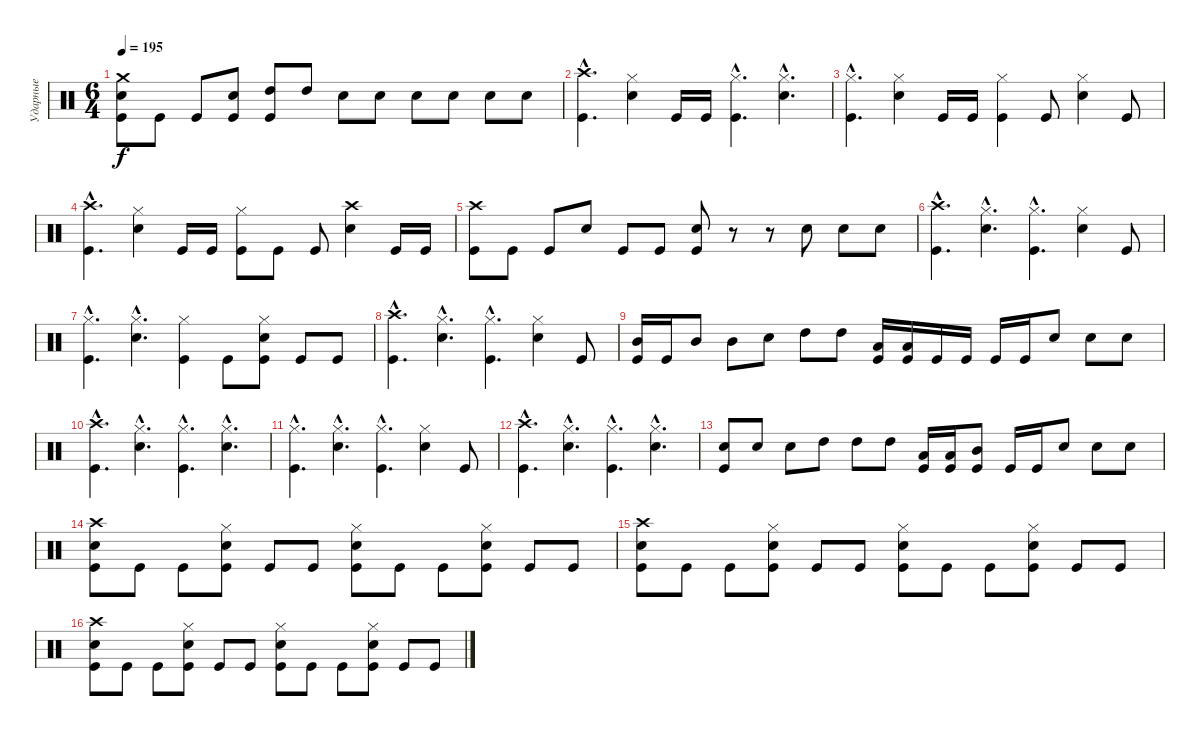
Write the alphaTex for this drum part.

\track ("Ударные" "Ударные") {instrument percussion}
\staff {score}
\articulation defaults
\ts (6 4)
\tempo 195
\clef neutral
\ks c
("Crash medium (hit)" "Electric Snare (hit)" "Kick (hit)").8{dy f} "Kick (hit)".8 "Kick (hit)".8 ("Electric Snare (hit)" "Kick (hit)").8 ("High Tom (hit)" "Kick (hit)").8 "High Tom (hit)".8 "Electric Snare (hit)".8 "Electric Snare (hit)".8 "Electric Snare (hit)".8 "Electric Snare (hit)".8 "Electric Snare (hit)".8 "Electric Snare (hit)".8 |
("Crash high (hit)"{hac} "Kick (hit)"{hac}).4{d} ("Hi-Hat (closed)" "Electric Snare (hit)").4 "Kick (hit)".16 "Kick (hit)".16 ("Hi-Hat (closed)"{hac} "Kick (hit)"{hac}).4{d} ("Hi-Hat (closed)"{hac} "Electric Snare (hit)"{hac}).4{d} |
("Hi-Hat (closed)"{hac} "Kick (hit)"{hac}).4{d} ("Hi-Hat (closed)" "Electric Snare (hit)").4 "Kick (hit)".16 "Kick (hit)".16 ("Hi-Hat (closed)" "Kick (hit)").4 "Kick (hit)".8 ("Hi-Hat (closed)" "Electric Snare (hit)").4 "Kick (hit)".8 |
("Crash high (hit)"{hac} "Kick (hit)"{hac}).4{d} ("Hi-Hat (closed)" "Electric Snare (hit)").4 "Kick (hit)".16 "Kick (hit)".16 ("Hi-Hat (closed)" "Kick (hit)").8 "Kick (hit)".8 "Kick (hit)".8 ("Crash high (hit)" "Electric Snare (hit)").4 "Kick (hit)".16 "Kick (hit)".16 |
("Crash high (hit)" "Kick (hit)").8 "Kick (hit)".8 "Kick (hit)".8 "Electric Snare (hit)".8 "Kick (hit)".8 "Kick (hit)".8 ("Electric Snare (hit)" "Kick (hit)").8 r.8 r.8 "Electric Snare (hit)".8 "Electric Snare (hit)".8 "Electric Snare (hit)".8 |
("Crash high (hit)"{hac} "Kick (hit)"{hac}).4{d} ("Hi-Hat (closed)"{hac} "Electric Snare (hit)"{hac}).4{d} ("Hi-Hat (closed)"{hac} "Kick (hit)"{hac}).4{d} ("Hi-Hat (closed)" "Electric Snare (hit)").4 "Kick (hit)".8 |
("Hi-Hat (closed)"{hac} "Kick (hit)"{hac}).4{d} ("Hi-Hat (closed)"{hac} "Electric Snare (hit)"{hac}).4{d} ("Hi-Hat (closed)" "Kick (hit)").4 "Kick (hit)".8 ("Hi-Hat (closed)" "Electric Snare (hit)" "Kick (hit)").8 "Kick (hit)".8 "Kick (hit)".8 |
("Crash high (hit)"{hac} "Kick (hit)"{hac}).4{d} ("Hi-Hat (closed)"{hac} "Electric Snare (hit)"{hac}).4{d} ("Hi-Hat (closed)"{hac} "Kick (hit)"{hac}).4{d} ("Hi-Hat (closed)" "Electric Snare (hit)").4 "Kick (hit)".8 |
("Mid Tom (hit)" "Kick (hit)").16 "Kick (hit)".16 "Mid Tom (hit)".8 "Mid Tom (hit)".8 "Electric Snare (hit)".8 "High Tom (hit)".8 "High Tom (hit)".8 ("Low Tom (hit)" "Kick (hit)").16 ("Low Tom (hit)" "Kick (hit)").16 "Kick (hit)".16 "Kick (hit)".16 "Kick (hit)".16 "Kick (hit)".16 "Electric Snare (hit)".8 "Electric Snare (hit)".8 "Electric Snare (hit)".8 |
("Crash high (hit)"{hac} "Kick (hit)"{hac}).4{d} ("Hi-Hat (closed)"{hac} "Electric Snare (hit)"{hac}).4{d} ("Hi-Hat (closed)"{hac} "Kick (hit)"{hac}).4{d} ("Hi-Hat (closed)"{hac} "Electric Snare (hit)"{hac}).4{d} |
("Hi-Hat (closed)"{hac} "Kick (hit)"{hac}).4{d} ("Hi-Hat (closed)"{hac} "Electric Snare (hit)"{hac}).4{d} ("Hi-Hat (closed)"{hac} "Kick (hit)"{hac}).4{d} ("Hi-Hat (closed)" "Electric Snare (hit)").4 "Kick (hit)".8 |
("Crash high (hit)"{hac} "Kick (hit)"{hac}).4{d} ("Hi-Hat (closed)"{hac} "Electric Snare (hit)"{hac}).4{d} ("Hi-Hat (closed)"{hac} "Kick (hit)"{hac}).4{d} ("Hi-Hat (closed)"{hac} "Electric Snare (hit)"{hac}).4{d} |
("Electric Snare (hit)" "Kick (hit)").8 "Electric Snare (hit)".8 "Electric Snare (hit)".8 "High Tom (hit)".8 "High Tom (hit)".8 "High Tom (hit)".8 ("Low Tom (hit)" "Kick (hit)").16 ("Low Tom (hit)" "Kick (hit)").16 ("Mid Tom (hit)" "Kick (hit)").8 "Kick (hit)".16 "Kick (hit)".16 "Electric Snare (hit)".8 "Electric Snare (hit)".8 "Electric Snare (hit)".8 |
("Crash high (hit)" "Electric Snare (hit)" "Kick (hit)").8 "Kick (hit)".8 "Kick (hit)".8 ("Hi-Hat (closed)" "Electric Snare (hit)" "Kick (hit)").8 "Kick (hit)".8 "Kick (hit)".8 ("Hi-Hat (closed)" "Electric Snare (hit)" "Kick (hit)").8 "Kick (hit)".8 "Kick (hit)".8 ("Hi-Hat (closed)" "Electric Snare (hit)" "Kick (hit)").8 "Kick (hit)".8 "Kick (hit)".8 |
("Crash high (hit)" "Electric Snare (hit)" "Kick (hit)").8 "Kick (hit)".8 "Kick (hit)".8 ("Hi-Hat (closed)" "Electric Snare (hit)" "Kick (hit)").8 "Kick (hit)".8 "Kick (hit)".8 ("Hi-Hat (closed)" "Electric Snare (hit)" "Kick (hit)").8 "Kick (hit)".8 "Kick (hit)".8 ("Hi-Hat (closed)" "Electric Snare (hit)" "Kick (hit)").8 "Kick (hit)".8 "Kick (hit)".8 |
("Crash high (hit)" "Electric Snare (hit)" "Kick (hit)").8 "Kick (hit)".8 "Kick (hit)".8 ("Hi-Hat (closed)" "Electric Snare (hit)" "Kick (hit)").8 "Kick (hit)".8 "Kick (hit)".8 ("Hi-Hat (closed)" "Electric Snare (hit)" "Kick (hit)").8 "Kick (hit)".8 "Kick (hit)".8 ("Hi-Hat (closed)" "Electric Snare (hit)" "Kick (hit)").8 "Kick (hit)".8 "Kick (hit)".8
